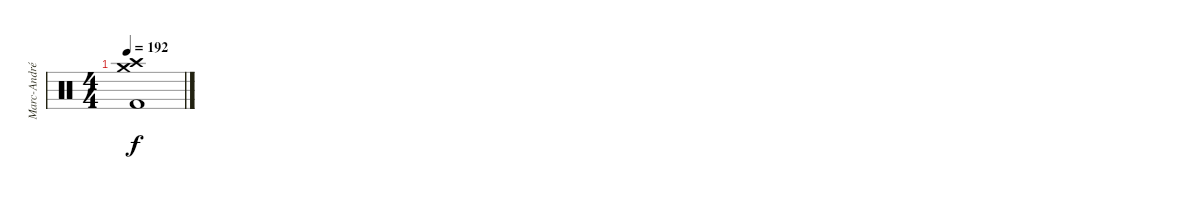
\track ("Marc-André Barabé" "Marc-André") {instrument percussion}
\staff {score}
\articulation defaults
\ts (4 4)
\tempo 192
\clef neutral
\ks c
("Crash high (hit)" "Crash medium (hit)" "Kick (hit) 2").1{dy f}
